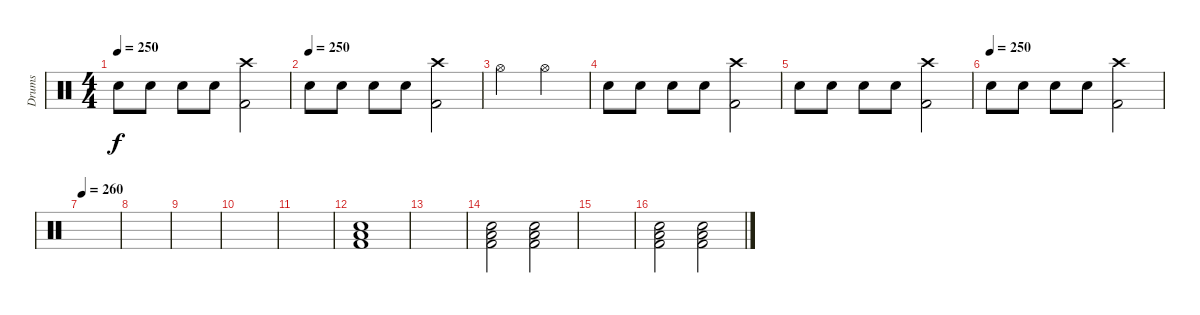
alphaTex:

\track ("Drums" "Drums") {instrument percussion}
\staff {score}
\articulation defaults
\ts (4 4)
\tempo 250
\clef neutral
\ks c "Snare (hit) 2".8{dy f} "Snare (hit) 2".8 "Snare (hit) 2".8 "Snare (hit) 2".8
("Crash high (hit)" "Kick (hit) 2").2 |
\tempo (250)
"Snare (hit) 2".8 "Snare (hit) 2".8 "Snare (hit) 2".8 "Snare (hit) 2".8 ("Crash high (hit)" "Kick (hit) 2").2 |
"Hi-Hat (open)".2 "Hi-Hat (open)".2 |
"Snare (hit) 2".8 "Snare (hit) 2".8 "Snare (hit) 2".8 "Snare (hit) 2".8 ("Crash high (hit)" "Kick (hit) 2").2 |
"Snare (hit) 2".8 "Snare (hit) 2".8 "Snare (hit) 2".8 "Snare (hit) 2".8 ("Crash high (hit)" "Kick (hit) 2").2 |
\tempo (250)
"Snare (hit) 2".8 "Snare (hit) 2".8 "Snare (hit) 2".8 "Snare (hit) 2".8 ("Crash high (hit)" "Kick (hit) 2").2 |
\tempo 260
|
|
|
|
|
("Low Tom (hit)" "Snare (hit) 2" "Kick (hit) 2").1 |
|
("Snare (hit) 2" "Low Tom (hit)" "Kick (hit) 2").2 ("Snare (hit) 2" "Low Tom (hit)" "Kick (hit) 2").2 |
|
("Snare (hit) 2" "Low Tom (hit)" "Kick (hit) 2").2 ("Snare (hit) 2" "Low Tom (hit)" "Kick (hit) 2").2
